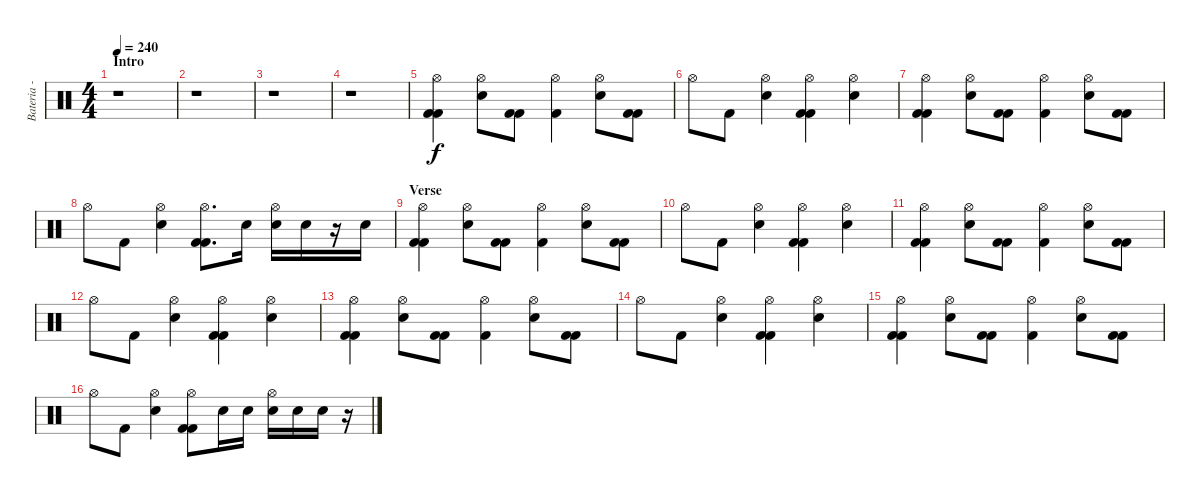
\track ("Bateria - Larzon" "Bateria - ") {instrument percussion}
\staff {score}
\articulation defaults
\ts (4 4)
\section ("" "Intro")
\tempo 240
\clef neutral
\ks c
r.1{dy f} |
r.1 |
r.1 |
r.1 |
("Kick (hit) 2" "Hi-Hat (open)" "Kick (hit) 2").4 ("Hi-Hat (open)" "Snare (hit) 2").8 ("Kick (hit) 2" "Kick (hit) 2").8 ("Kick (hit) 2" "Hi-Hat (open)").4 ("Hi-Hat (open)" "Snare (hit) 2").8 ("Kick (hit) 2" "Kick (hit) 2").8 |
"Hi-Hat (open)".8 "Kick (hit) 2".8 ("Hi-Hat (open)" "Snare (hit) 2").4 ("Kick (hit) 2" "Hi-Hat (open)" "Kick (hit) 2").4 ("Hi-Hat (open)" "Snare (hit) 2").4 |
("Kick (hit) 2" "Hi-Hat (open)" "Kick (hit) 2").4 ("Hi-Hat (open)" "Snare (hit) 2").8 ("Kick (hit) 2" "Kick (hit) 2").8 ("Kick (hit) 2" "Hi-Hat (open)").4 ("Hi-Hat (open)" "Snare (hit) 2").8 ("Kick (hit) 2" "Kick (hit) 2").8 |
"Hi-Hat (open)".8 "Kick (hit) 2".8 ("Hi-Hat (open)" "Snare (hit) 2").4 ("Hi-Hat (open)" "Kick (hit) 2" "Kick (hit) 2").8{d} "Snare (hit) 2".16 ("Hi-Hat (open)" "Snare (hit) 2").16 "Snare (hit) 2".16 r.16 "Snare (hit) 2".16 |
\section ("" "Verse")
("Kick (hit) 2" "Hi-Hat (open)" "Kick (hit) 2").4 ("Hi-Hat (open)" "Snare (hit) 2").8 ("Kick (hit) 2" "Kick (hit) 2").8 ("Kick (hit) 2" "Hi-Hat (open)").4 ("Hi-Hat (open)" "Snare (hit) 2").8 ("Kick (hit) 2" "Kick (hit) 2").8 |
"Hi-Hat (open)".8 "Kick (hit) 2".8 ("Hi-Hat (open)" "Snare (hit) 2").4 ("Kick (hit) 2" "Hi-Hat (open)" "Kick (hit) 2").4 ("Hi-Hat (open)" "Snare (hit) 2").4 |
("Kick (hit) 2" "Hi-Hat (open)" "Kick (hit) 2").4 ("Hi-Hat (open)" "Snare (hit) 2").8 ("Kick (hit) 2" "Kick (hit) 2").8 ("Kick (hit) 2" "Hi-Hat (open)").4 ("Hi-Hat (open)" "Snare (hit) 2").8 ("Kick (hit) 2" "Kick (hit) 2").8 |
"Hi-Hat (open)".8 "Kick (hit) 2".8 ("Hi-Hat (open)" "Snare (hit) 2").4 ("Kick (hit) 2" "Hi-Hat (open)" "Kick (hit) 2").4 ("Hi-Hat (open)" "Snare (hit) 2").4 |
("Kick (hit) 2" "Hi-Hat (open)" "Kick (hit) 2").4 ("Hi-Hat (open)" "Snare (hit) 2").8 ("Kick (hit) 2" "Kick (hit) 2").8 ("Kick (hit) 2" "Hi-Hat (open)").4 ("Hi-Hat (open)" "Snare (hit) 2").8 ("Kick (hit) 2" "Kick (hit) 2").8 |
"Hi-Hat (open)".8 "Kick (hit) 2".8 ("Hi-Hat (open)" "Snare (hit) 2").4 ("Kick (hit) 2" "Hi-Hat (open)" "Kick (hit) 2").4 ("Hi-Hat (open)" "Snare (hit) 2").4 |
("Kick (hit) 2" "Hi-Hat (open)" "Kick (hit) 2").4 ("Hi-Hat (open)" "Snare (hit) 2").8 ("Kick (hit) 2" "Kick (hit) 2").8 ("Kick (hit) 2" "Hi-Hat (open)").4 ("Hi-Hat (open)" "Snare (hit) 2").8 ("Kick (hit) 2" "Kick (hit) 2").8 |
"Hi-Hat (open)".8 "Kick (hit) 2".8 ("Hi-Hat (open)" "Snare (hit) 2").4 ("Kick (hit) 2" "Hi-Hat (open)" "Kick (hit) 2").8{volume 12} "Snare (hit) 2".16 "Snare (hit) 2".16{volume 16} ("Hi-Hat (open)" "Snare (hit) 2").16{volume 12} "Snare (hit) 2".16 "Snare (hit) 2".16{volume 16} r.16
